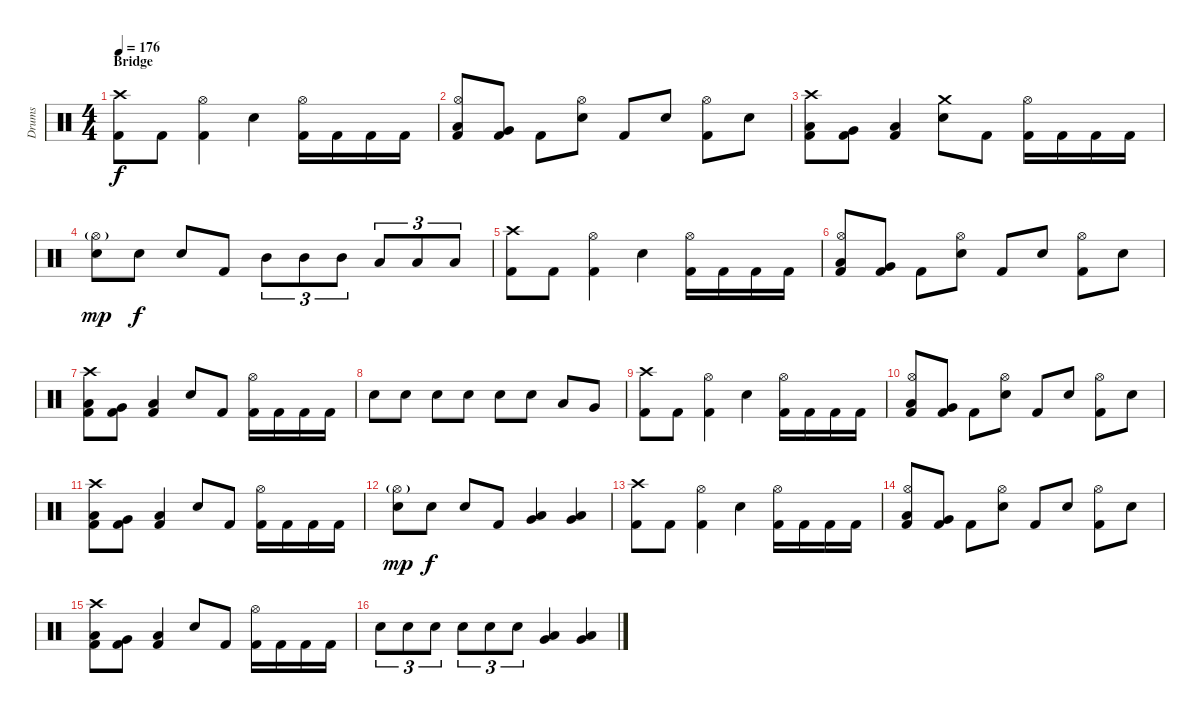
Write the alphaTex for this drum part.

\track ("Drums" "Drums") {instrument percussion}
\staff {score}
\articulation defaults
\ts (4 4)
\section ("" "Bridge")
\tempo 176
\clef neutral
\ks c
("Crash high (hit)" "Kick (hit) 2").8{dy f} "Kick (hit) 2".8 ("Hi-Hat (open)" "Kick (hit) 2").4 "Snare (hit) 2".4 ("Hi-Hat (open)" "Kick (hit) 2").16 "Kick (hit) 2".16 "Kick (hit) 2".16 "Kick (hit) 2".16 |
("Hi-Hat (open)" "Low Tom (hit)" "Kick (hit) 2").8 ("Very Low Tom (hit)" "Kick (hit) 2").8 "Kick (hit) 2".8 ("Hi-Hat (open)" "Snare (hit) 2").8 "Kick (hit) 2".8 "Snare (hit) 2".8 ("Hi-Hat (open)" "Kick (hit) 2").8 "Snare (hit) 2".8 |
("Crash high (hit)" "Low Tom (hit)" "Kick (hit) 2").8 ("Very Low Tom (hit)" "Kick (hit) 2").8 ("Low Floor Tom (hit)" "Kick (hit) 2").4 ("Crash medium (hit)" "Snare (hit) 2").8 "Kick (hit) 2".8 ("Hi-Hat (open)" "Kick (hit) 2").16 "Kick (hit) 2".16 "Kick (hit) 2".16 "Kick (hit) 2".16 |
("Hi-Hat (open)"{g} "Snare (hit) 2").8{dy mp} "Snare (hit) 2".8{dy f} "Snare (hit) 2".8 "Kick (hit) 2".8 "Mid Tom (hit)".8{tu (3 2)} "Mid Tom (hit)".8{tu (3 2)} "Mid Tom (hit)".8{tu (3 2)} "Low Tom (hit)".8{tu (3 2)} "Low Tom (hit)".8{tu (3 2)} "Low Tom (hit)".8{tu (3 2)} |
("Crash high (hit)" "Kick (hit) 2").8 "Kick (hit) 2".8 ("Hi-Hat (open)" "Kick (hit) 2").4 "Snare (hit) 2".4 ("Hi-Hat (open)" "Kick (hit) 2").16 "Kick (hit) 2".16 "Kick (hit) 2".16 "Kick (hit) 2".16 |
("Hi-Hat (open)" "Low Tom (hit)" "Kick (hit) 2").8 ("Very Low Tom (hit)" "Kick (hit) 2").8 "Kick (hit) 2".8 ("Hi-Hat (open)" "Snare (hit) 2").8 "Kick (hit) 2".8 "Snare (hit) 2".8 ("Hi-Hat (open)" "Kick (hit) 2").8 "Snare (hit) 2".8 |
("Crash high (hit)" "Low Tom (hit)" "Kick (hit) 2").8 ("Very Low Tom (hit)" "Kick (hit) 2").8 ("Low Floor Tom (hit)" "Kick (hit) 2").4 "Snare (hit) 2".8 "Kick (hit) 2".8 ("Hi-Hat (open)" "Kick (hit) 2").16 "Kick (hit) 2".16 "Kick (hit) 2".16 "Kick (hit) 2".16 |
"Snare (hit) 2".8 "Snare (hit) 2".8 "Snare (hit) 2".8 "Snare (hit) 2".8 "Snare (hit) 2".8 "Snare (hit) 2".8 "Low Tom (hit)".8 "Very Low Tom (hit)".8 |
("Crash high (hit)" "Kick (hit) 2").8 "Kick (hit) 2".8 ("Hi-Hat (open)" "Kick (hit) 2").4 "Snare (hit) 2".4 ("Hi-Hat (open)" "Kick (hit) 2").16 "Kick (hit) 2".16 "Kick (hit) 2".16 "Kick (hit) 2".16 |
("Hi-Hat (open)" "Low Tom (hit)" "Kick (hit) 2").8 ("Very Low Tom (hit)" "Kick (hit) 2").8 "Kick (hit) 2".8 ("Hi-Hat (open)" "Snare (hit) 2").8 "Kick (hit) 2".8 "Snare (hit) 2".8 ("Hi-Hat (open)" "Kick (hit) 2").8 "Snare (hit) 2".8 |
("Crash high (hit)" "Low Tom (hit)" "Kick (hit) 2").8 ("Very Low Tom (hit)" "Kick (hit) 2").8 ("Low Floor Tom (hit)" "Kick (hit) 2").4 "Snare (hit) 2".8 "Kick (hit) 2".8 ("Hi-Hat (open)" "Kick (hit) 2").16 "Kick (hit) 2".16 "Kick (hit) 2".16 "Kick (hit) 2".16 |
("Hi-Hat (open)"{g} "Snare (hit) 2").8{dy mp} "Snare (hit) 2".8{dy f} "Snare (hit) 2".8 "Kick (hit) 2".8 ("Very Low Tom (hit)" "Low Tom (hit)").4 ("Low Floor Tom (hit)" "Very Low Tom (hit)").4 |
("Crash high (hit)" "Kick (hit) 2").8 "Kick (hit) 2".8 ("Hi-Hat (open)" "Kick (hit) 2").4 "Snare (hit) 2".4 ("Hi-Hat (open)" "Kick (hit) 2").16 "Kick (hit) 2".16 "Kick (hit) 2".16 "Kick (hit) 2".16 |
("Hi-Hat (open)" "Low Tom (hit)" "Kick (hit) 2").8 ("Very Low Tom (hit)" "Kick (hit) 2").8 "Kick (hit) 2".8 ("Hi-Hat (open)" "Snare (hit) 2").8 "Kick (hit) 2".8 "Snare (hit) 2".8 ("Hi-Hat (open)" "Kick (hit) 2").8 "Snare (hit) 2".8 |
("Crash high (hit)" "Low Tom (hit)" "Kick (hit) 2").8 ("Very Low Tom (hit)" "Kick (hit) 2").8 ("Low Floor Tom (hit)" "Kick (hit) 2").4 "Snare (hit) 2".8 "Kick (hit) 2".8 ("Hi-Hat (open)" "Kick (hit) 2").16 "Kick (hit) 2".16 "Kick (hit) 2".16 "Kick (hit) 2".16 |
"Snare (hit) 2".8{tu (3 2)} "Snare (hit) 2".8{tu (3 2)} "Snare (hit) 2".8{tu (3 2)} "Snare (hit) 2".8{tu (3 2)} "Snare (hit) 2".8{tu (3 2)} "Snare (hit) 2".8{tu (3 2)} ("Very Low Tom (hit)" "Low Tom (hit)").4 ("Low Floor Tom (hit)" "Very Low Tom (hit)").4
